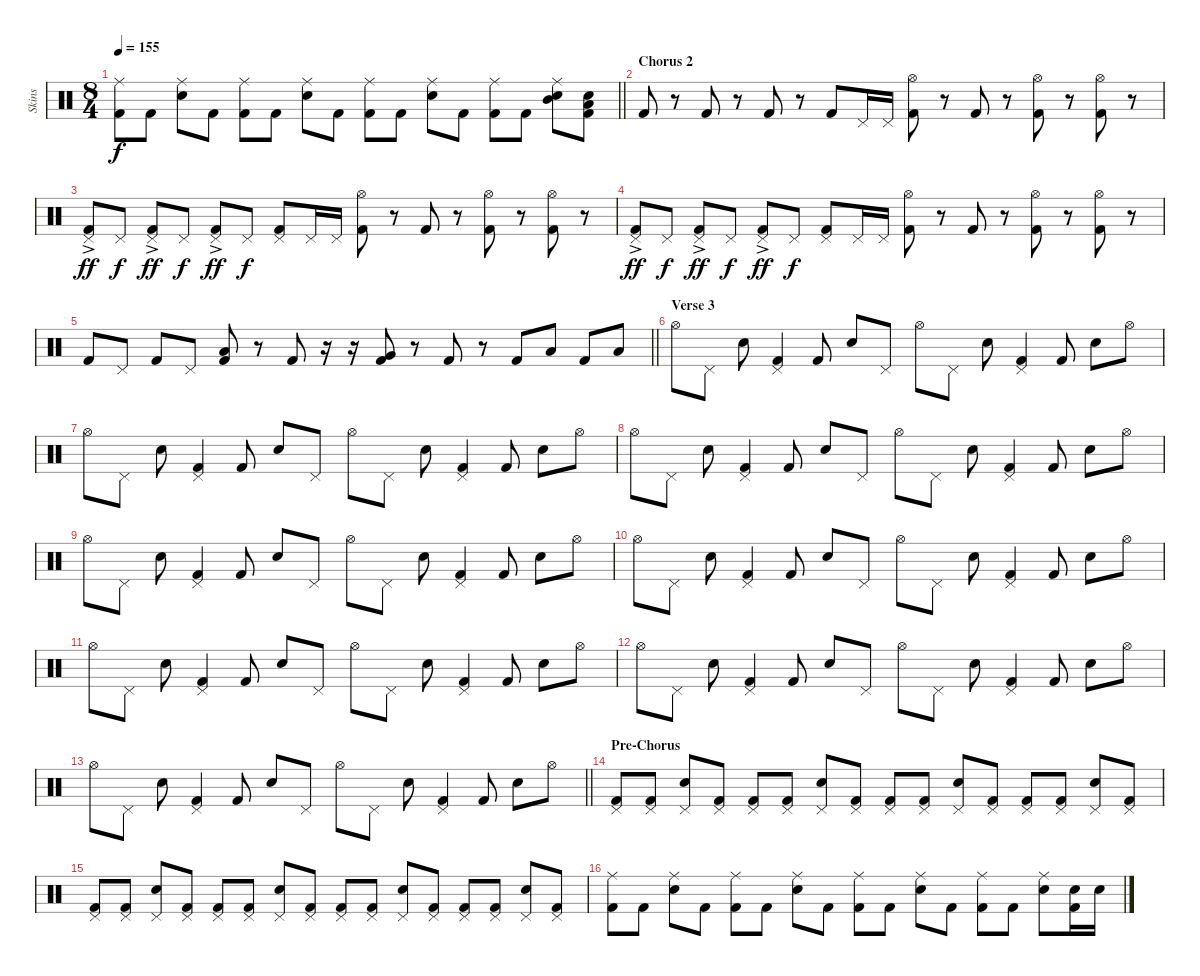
\track ("Skins" "Skins") {instrument percussion}
\staff {score}
\articulation defaults
\ts (8 4)
\tempo 155
\clef neutral
\barLineRight lightlight
\ks c
("Ride (middle)" "Kick (hit) 2").8{dy f} "Kick (hit) 2".8 ("Ride (middle)" "Electric Snare (hit)").8 "Kick (hit) 2".8 ("Ride (middle)" "Kick (hit) 2").8 "Kick (hit) 2".8 ("Ride (middle)" "Electric Snare (hit)").8 "Kick (hit) 2".8 ("Ride (middle)" "Kick (hit) 2").8 "Kick (hit) 2".8 ("Ride (middle)" "Electric Snare (hit)").8 "Kick (hit) 2".8 ("Ride (middle)" "Kick (hit) 2").8 "Kick (hit) 2".8 ("Ride (middle)" "Mid Tom (hit)" "Electric Snare (hit)").8 ("Low Tom (hit)" "Electric Snare (hit)" "Kick (hit) 2").8 |
\section ("" "Chorus 2")
"Kick (hit) 2".8 r.8 "Kick (hit) 2".8 r.8 "Kick (hit) 2".8 r.8 "Kick (hit) 2".8 "Pedal Hi-Hat (hit)".16 "Pedal Hi-Hat (hit)".16 ("Hi-Hat (open)" "Kick (hit) 2").8 r.8 "Kick (hit) 2".8 r.8 ("Hi-Hat (open)" "Kick (hit) 2").8 r.8 ("Hi-Hat (open)" "Kick (hit) 2").8 r.8 |
("Pedal Hi-Hat (hit)"{ac} "Kick (hit) 2").8{dy ff} "Pedal Hi-Hat (hit)".8{dy f} ("Pedal Hi-Hat (hit)"{ac} "Kick (hit) 2").8{dy ff} "Pedal Hi-Hat (hit)".8{dy f} ("Pedal Hi-Hat (hit)"{ac} "Kick (hit) 2").8{dy ff} "Pedal Hi-Hat (hit)".8{dy f} ("Pedal Hi-Hat (hit)" "Kick (hit) 2").8 "Pedal Hi-Hat (hit)".16 "Pedal Hi-Hat (hit)".16 ("Hi-Hat (open)" "Kick (hit) 2").8 r.8 "Kick (hit) 2".8 r.8 ("Hi-Hat (open)" "Kick (hit) 2").8 r.8 ("Hi-Hat (open)" "Kick (hit) 2").8 r.8 |
("Pedal Hi-Hat (hit)"{ac} "Kick (hit) 2").8{dy ff} "Pedal Hi-Hat (hit)".8{dy f} ("Pedal Hi-Hat (hit)"{ac} "Kick (hit) 2").8{dy ff} "Pedal Hi-Hat (hit)".8{dy f} ("Pedal Hi-Hat (hit)"{ac} "Kick (hit) 2").8{dy ff} "Pedal Hi-Hat (hit)".8{dy f} ("Pedal Hi-Hat (hit)" "Kick (hit) 2").8 "Pedal Hi-Hat (hit)".16 "Pedal Hi-Hat (hit)".16 ("Hi-Hat (open)" "Kick (hit) 2").8 r.8 "Kick (hit) 2".8 r.8 ("Hi-Hat (open)" "Kick (hit) 2").8 r.8 ("Hi-Hat (open)" "Kick (hit) 2").8 r.8 |
\barLineRight lightlight "Kick (hit) 2".8 "Pedal Hi-Hat (hit)".8 "Kick (hit) 2".8 "Pedal Hi-Hat (hit)".8
("Low Tom (hit)" "Kick (hit) 2").8 r.8 "Kick (hit) 2".8 r.16 r.16 ("Very Low Tom (hit)" "Kick (hit) 2").8 r.8 "Kick (hit) 2".8 r.8 "Kick (hit) 2".8 "Low Tom (hit)".8 "Kick (hit) 2".8 "Low Floor Tom (hit)".8 |
\section ("" "Verse 3")
"Hi-Hat (open)".8 "Pedal Hi-Hat (hit)".8 "Electric Snare (hit)".8 ("Pedal Hi-Hat (hit)" "Kick (hit) 2").4 "Kick (hit) 2".8 "Electric Snare (hit)".8 "Pedal Hi-Hat (hit)".8 "Hi-Hat (open)".8 "Pedal Hi-Hat (hit)".8 "Electric Snare (hit)".8 ("Pedal Hi-Hat (hit)" "Kick (hit) 2").4 "Kick (hit) 2".8 "Electric Snare (hit)".8 "Hi-Hat (open)".8 |
"Hi-Hat (open)".8 "Pedal Hi-Hat (hit)".8 "Electric Snare (hit)".8 ("Pedal Hi-Hat (hit)" "Kick (hit) 2").4 "Kick (hit) 2".8 "Electric Snare (hit)".8 "Pedal Hi-Hat (hit)".8 "Hi-Hat (open)".8 "Pedal Hi-Hat (hit)".8 "Electric Snare (hit)".8 ("Pedal Hi-Hat (hit)" "Kick (hit) 2").4 "Kick (hit) 2".8 "Electric Snare (hit)".8 "Hi-Hat (open)".8 |
"Hi-Hat (open)".8 "Pedal Hi-Hat (hit)".8 "Electric Snare (hit)".8 ("Pedal Hi-Hat (hit)" "Kick (hit) 2").4 "Kick (hit) 2".8 "Electric Snare (hit)".8 "Pedal Hi-Hat (hit)".8 "Hi-Hat (open)".8 "Pedal Hi-Hat (hit)".8 "Electric Snare (hit)".8 ("Pedal Hi-Hat (hit)" "Kick (hit) 2").4 "Kick (hit) 2".8 "Electric Snare (hit)".8 "Hi-Hat (open)".8 |
"Hi-Hat (open)".8 "Pedal Hi-Hat (hit)".8 "Electric Snare (hit)".8 ("Pedal Hi-Hat (hit)" "Kick (hit) 2").4 "Kick (hit) 2".8 "Electric Snare (hit)".8 "Pedal Hi-Hat (hit)".8 "Hi-Hat (open)".8 "Pedal Hi-Hat (hit)".8 "Electric Snare (hit)".8 ("Pedal Hi-Hat (hit)" "Kick (hit) 2").4 "Kick (hit) 2".8 "Electric Snare (hit)".8 "Hi-Hat (open)".8 |
"Hi-Hat (open)".8 "Pedal Hi-Hat (hit)".8 "Electric Snare (hit)".8 ("Pedal Hi-Hat (hit)" "Kick (hit) 2").4 "Kick (hit) 2".8 "Electric Snare (hit)".8 "Pedal Hi-Hat (hit)".8 "Hi-Hat (open)".8 "Pedal Hi-Hat (hit)".8 "Electric Snare (hit)".8 ("Pedal Hi-Hat (hit)" "Kick (hit) 2").4 "Kick (hit) 2".8 "Electric Snare (hit)".8 "Hi-Hat (open)".8 |
"Hi-Hat (open)".8 "Pedal Hi-Hat (hit)".8 "Electric Snare (hit)".8 ("Pedal Hi-Hat (hit)" "Kick (hit) 2").4 "Kick (hit) 2".8 "Electric Snare (hit)".8 "Pedal Hi-Hat (hit)".8 "Hi-Hat (open)".8 "Pedal Hi-Hat (hit)".8 "Electric Snare (hit)".8 ("Pedal Hi-Hat (hit)" "Kick (hit) 2").4 "Kick (hit) 2".8 "Electric Snare (hit)".8 "Hi-Hat (open)".8 |
"Hi-Hat (open)".8 "Pedal Hi-Hat (hit)".8 "Electric Snare (hit)".8 ("Pedal Hi-Hat (hit)" "Kick (hit) 2").4 "Kick (hit) 2".8 "Electric Snare (hit)".8 "Pedal Hi-Hat (hit)".8 "Hi-Hat (open)".8 "Pedal Hi-Hat (hit)".8 "Electric Snare (hit)".8 ("Pedal Hi-Hat (hit)" "Kick (hit) 2").4 "Kick (hit) 2".8 "Electric Snare (hit)".8 "Hi-Hat (open)".8 |
\barLineRight lightlight "Hi-Hat (open)".8 "Pedal Hi-Hat (hit)".8 "Electric Snare (hit)".8
("Pedal Hi-Hat (hit)" "Kick (hit) 2").4 "Kick (hit) 2".8 "Electric Snare (hit)".8 "Pedal Hi-Hat (hit)".8 "Hi-Hat (open)".8 "Pedal Hi-Hat (hit)".8 "Electric Snare (hit)".8 ("Pedal Hi-Hat (hit)" "Kick (hit) 2").4 "Kick (hit) 2".8 "Electric Snare (hit)".8 "Hi-Hat (open)".8 |
\section ("" "Pre-Chorus")
("Pedal Hi-Hat (hit)" "Kick (hit) 2").8 ("Pedal Hi-Hat (hit)" "Kick (hit) 2").8 ("Pedal Hi-Hat (hit)" "Electric Snare (hit)").8 ("Pedal Hi-Hat (hit)" "Kick (hit) 2").8 ("Pedal Hi-Hat (hit)" "Kick (hit) 2").8 ("Pedal Hi-Hat (hit)" "Kick (hit) 2").8 ("Pedal Hi-Hat (hit)" "Electric Snare (hit)").8 ("Pedal Hi-Hat (hit)" "Kick (hit) 2").8 ("Pedal Hi-Hat (hit)" "Kick (hit) 2").8 ("Pedal Hi-Hat (hit)" "Kick (hit) 2").8 ("Pedal Hi-Hat (hit)" "Electric Snare (hit)").8 ("Pedal Hi-Hat (hit)" "Kick (hit) 2").8 ("Pedal Hi-Hat (hit)" "Kick (hit) 2").8 ("Pedal Hi-Hat (hit)" "Kick (hit) 2").8 ("Pedal Hi-Hat (hit)" "Electric Snare (hit)").8 ("Pedal Hi-Hat (hit)" "Kick (hit) 2").8 |
("Pedal Hi-Hat (hit)" "Kick (hit) 2").8 ("Pedal Hi-Hat (hit)" "Kick (hit) 2").8 ("Pedal Hi-Hat (hit)" "Electric Snare (hit)").8 ("Pedal Hi-Hat (hit)" "Kick (hit) 2").8 ("Pedal Hi-Hat (hit)" "Kick (hit) 2").8 ("Pedal Hi-Hat (hit)" "Kick (hit) 2").8 ("Pedal Hi-Hat (hit)" "Electric Snare (hit)").8 ("Pedal Hi-Hat (hit)" "Kick (hit) 2").8 ("Pedal Hi-Hat (hit)" "Kick (hit) 2").8 ("Pedal Hi-Hat (hit)" "Kick (hit) 2").8 ("Pedal Hi-Hat (hit)" "Electric Snare (hit)").8 ("Pedal Hi-Hat (hit)" "Kick (hit) 2").8 ("Pedal Hi-Hat (hit)" "Kick (hit) 2").8 ("Pedal Hi-Hat (hit)" "Kick (hit) 2").8 ("Pedal Hi-Hat (hit)" "Electric Snare (hit)").8 ("Pedal Hi-Hat (hit)" "Kick (hit) 2").8 |
("Ride (middle)" "Kick (hit) 2").8 "Kick (hit) 2".8 ("Ride (middle)" "Electric Snare (hit)").8 "Kick (hit) 2".8 ("Ride (middle)" "Kick (hit) 2").8 "Kick (hit) 2".8 ("Ride (middle)" "Electric Snare (hit)").8 "Kick (hit) 2".8 ("Ride (middle)" "Kick (hit) 2").8 "Kick (hit) 2".8 ("Ride (middle)" "Electric Snare (hit)").8 "Kick (hit) 2".8 ("Ride (middle)" "Kick (hit) 2").8 "Kick (hit) 2".8 ("Ride (middle)" "Electric Snare (hit)").8 ("Electric Snare (hit)" "Kick (hit) 2").16 "Electric Snare (hit)".16
